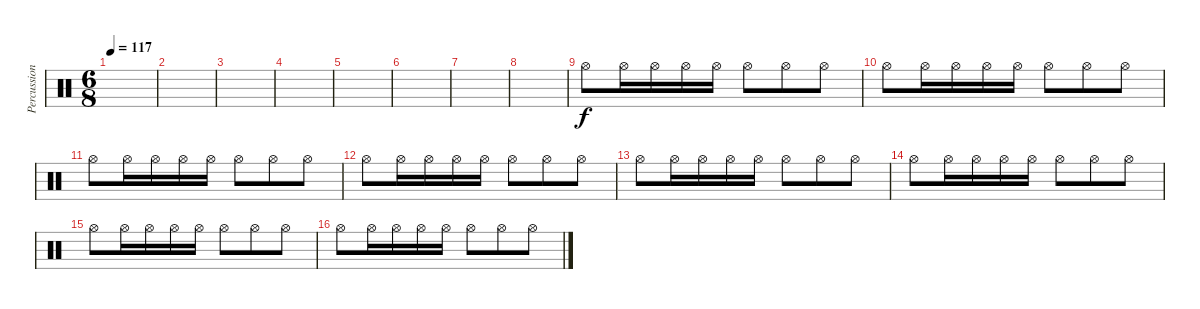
\track ("Percussion" "Percussion") {instrument percussion}
\staff {score}
\articulation defaults
\ts (6 8)
\tempo 117
\clef neutral
\ks c
|
|
|
|
|
|
|
|
"Hi-Hat (open)".8 "Hi-Hat (open)".16 "Hi-Hat (open)".16 "Hi-Hat (open)".16 "Hi-Hat (open)".16 "Hi-Hat (open)".8 "Hi-Hat (open)".8 "Hi-Hat (open)".8 |
"Hi-Hat (open)".8 "Hi-Hat (open)".16 "Hi-Hat (open)".16 "Hi-Hat (open)".16 "Hi-Hat (open)".16 "Hi-Hat (open)".8 "Hi-Hat (open)".8 "Hi-Hat (open)".8 |
"Hi-Hat (open)".8 "Hi-Hat (open)".16 "Hi-Hat (open)".16 "Hi-Hat (open)".16 "Hi-Hat (open)".16 "Hi-Hat (open)".8 "Hi-Hat (open)".8 "Hi-Hat (open)".8 |
"Hi-Hat (open)".8 "Hi-Hat (open)".16 "Hi-Hat (open)".16 "Hi-Hat (open)".16 "Hi-Hat (open)".16 "Hi-Hat (open)".8 "Hi-Hat (open)".8 "Hi-Hat (open)".8 |
"Hi-Hat (open)".8 "Hi-Hat (open)".16 "Hi-Hat (open)".16 "Hi-Hat (open)".16 "Hi-Hat (open)".16 "Hi-Hat (open)".8 "Hi-Hat (open)".8 "Hi-Hat (open)".8 |
"Hi-Hat (open)".8 "Hi-Hat (open)".16 "Hi-Hat (open)".16 "Hi-Hat (open)".16 "Hi-Hat (open)".16 "Hi-Hat (open)".8 "Hi-Hat (open)".8 "Hi-Hat (open)".8 |
"Hi-Hat (open)".8 "Hi-Hat (open)".16 "Hi-Hat (open)".16 "Hi-Hat (open)".16 "Hi-Hat (open)".16 "Hi-Hat (open)".8 "Hi-Hat (open)".8 "Hi-Hat (open)".8 |
"Hi-Hat (open)".8 "Hi-Hat (open)".16 "Hi-Hat (open)".16 "Hi-Hat (open)".16 "Hi-Hat (open)".16 "Hi-Hat (open)".8 "Hi-Hat (open)".8 "Hi-Hat (open)".8
